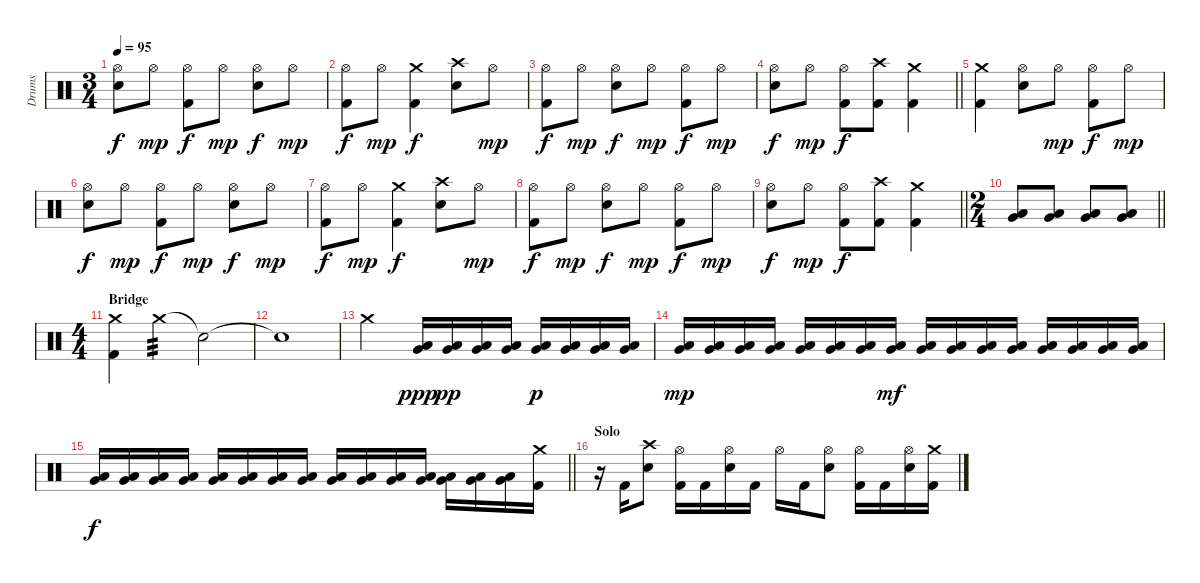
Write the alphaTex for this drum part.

\track ("Drums" "Drums") {instrument percussion}
\staff {score}
\articulation defaults
\ts (3 4)
\tempo 95
\clef neutral
\ks c
("Hi-Hat (open)" "Snare (hit) 2").8{dy f} "Hi-Hat (open)".8{dy mp} ("Hi-Hat (open)" "Kick (hit) 2").8{dy f} "Hi-Hat (open)".8{dy mp} ("Hi-Hat (open)" "Snare (hit) 2").8{dy f} "Hi-Hat (open)".8{dy mp} |
("Hi-Hat (open)" "Kick (hit) 2").8{dy f} "Hi-Hat (open)".8{dy mp} ("Crash medium (hit)" "Kick (hit) 2").4{dy f} ("Crash high (hit)" "Snare (hit) 2").8 "Hi-Hat (open)".8{dy mp} |
("Hi-Hat (open)" "Kick (hit) 2").8{dy f} "Hi-Hat (open)".8{dy mp} ("Hi-Hat (open)" "Snare (hit) 2").8{dy f} "Hi-Hat (open)".8{dy mp} ("Hi-Hat (open)" "Kick (hit) 2").8{dy f} "Hi-Hat (open)".8{dy mp} |
\barLineRight lightlight
("Hi-Hat (open)" "Snare (hit) 2").8{dy f} "Hi-Hat (open)".8{dy mp} ("Hi-Hat (open)" "Kick (hit) 2").8{dy f} ("Crash high (hit)" "Kick (hit) 2").8 ("Crash medium (hit)" "Kick (hit) 2").4 |
("Crash medium (hit)" "Kick (hit) 2").4 ("Hi-Hat (open)" "Snare (hit) 2").8 "Hi-Hat (open)".8{dy mp} ("Hi-Hat (open)" "Kick (hit) 2").8{dy f} "Hi-Hat (open)".8{dy mp} |
("Hi-Hat (open)" "Snare (hit) 2").8{dy f} "Hi-Hat (open)".8{dy mp} ("Hi-Hat (open)" "Kick (hit) 2").8{dy f} "Hi-Hat (open)".8{dy mp} ("Hi-Hat (open)" "Snare (hit) 2").8{dy f} "Hi-Hat (open)".8{dy mp} |
("Hi-Hat (open)" "Kick (hit) 2").8{dy f} "Hi-Hat (open)".8{dy mp} ("Crash medium (hit)" "Kick (hit) 2").4{dy f} ("Crash high (hit)" "Snare (hit) 2").8 "Hi-Hat (open)".8{dy mp} |
("Hi-Hat (open)" "Kick (hit) 2").8{dy f} "Hi-Hat (open)".8{dy mp} ("Hi-Hat (open)" "Snare (hit) 2").8{dy f} "Hi-Hat (open)".8{dy mp} ("Hi-Hat (open)" "Kick (hit) 2").8{dy f} "Hi-Hat (open)".8{dy mp} |
\barLineRight lightlight
("Hi-Hat (open)" "Snare (hit) 2").8{dy f} "Hi-Hat (open)".8{dy mp} ("Hi-Hat (open)" "Kick (hit) 2").8{dy f} ("Crash high (hit)" "Kick (hit) 2").8 ("Crash medium (hit)" "Kick (hit) 2").4 |
\ts (2 4)
\barLineRight lightlight
("Very Low Tom (hit)" "Low Floor Tom (hit)").8 ("Very Low Tom (hit)" "Low Floor Tom (hit)").8 ("Very Low Tom (hit)" "Low Floor Tom (hit)").8 ("Very Low Tom (hit)" "Low Floor Tom (hit)").8 |
\ts (4 4)
\section ("" "Bridge")
("Crash medium (hit)" "Kick (hit) 2").4 "Crash medium (hit)".4{tp 3 volume 8} "Snare (hit)"{t}.2{volume 13} |
"Snare (hit)"{t}.1 |
"Crash medium (hit)".2 ("Low Tom (hit)" "Very Low Tom (hit)").16{dy ppp} ("Low Tom (hit)" "Very Low Tom (hit)").16{dy pp} ("Low Tom (hit)" "Very Low Tom (hit)").16 ("Low Tom (hit)" "Very Low Tom (hit)").16 ("Low Tom (hit)" "Very Low Tom (hit)").16{dy p} ("Low Tom (hit)" "Very Low Tom (hit)").16 ("Low Tom (hit)" "Very Low Tom (hit)").16 ("Low Tom (hit)" "Very Low Tom (hit)").16 |
("Low Tom (hit)" "Very Low Tom (hit)").16{dy mp} ("Low Tom (hit)" "Very Low Tom (hit)").16 ("Low Tom (hit)" "Very Low Tom (hit)").16 ("Low Tom (hit)" "Very Low Tom (hit)").16 ("Low Tom (hit)" "Very Low Tom (hit)").16 ("Low Tom (hit)" "Very Low Tom (hit)").16 ("Low Tom (hit)" "Very Low Tom (hit)").16 ("Low Tom (hit)" "Very Low Tom (hit)").16{dy mf} ("Low Tom (hit)" "Very Low Tom (hit)").16 ("Low Tom (hit)" "Very Low Tom (hit)").16 ("Low Tom (hit)" "Very Low Tom (hit)").16 ("Low Tom (hit)" "Very Low Tom (hit)").16 ("Low Tom (hit)" "Very Low Tom (hit)").16 ("Low Tom (hit)" "Very Low Tom (hit)").16 ("Low Tom (hit)" "Very Low Tom (hit)").16 ("Low Tom (hit)" "Very Low Tom (hit)").16 |
\barLineRight lightlight
("Low Tom (hit)" "Very Low Tom (hit)").16{dy f} ("Low Tom (hit)" "Very Low Tom (hit)").16 ("Low Tom (hit)" "Very Low Tom (hit)").16 ("Low Tom (hit)" "Very Low Tom (hit)").16 ("Low Tom (hit)" "Very Low Tom (hit)").16 ("Low Tom (hit)" "Very Low Tom (hit)").16 ("Low Tom (hit)" "Very Low Tom (hit)").16 ("Low Tom (hit)" "Very Low Tom (hit)").16 ("Low Tom (hit)" "Very Low Tom (hit)").16 ("Low Tom (hit)" "Very Low Tom (hit)").16 ("Low Tom (hit)" "Very Low Tom (hit)").16 ("Low Tom (hit)" "Very Low Tom (hit)").16 ("Very Low Tom (hit)" "Low Floor Tom (hit)").16 ("Low Floor Tom (hit)" "Very Low Tom (hit)").16 ("Low Floor Tom (hit)" "Very Low Tom (hit)").16 ("Crash medium (hit)" "Kick (hit) 2").16 |
\section ("" "Solo")
r.16 "Kick (hit) 2".16 ("Crash high (hit)" "Snare (hit) 2").8 ("Hi-Hat (open)" "Kick (hit) 2").16 "Kick (hit) 2".16 ("Hi-Hat (open)" "Snare (hit) 2").16 "Kick (hit) 2".16 "Hi-Hat (open)".16 "Kick (hit) 2".16 ("Hi-Hat (open)" "Snare (hit) 2").8 ("Hi-Hat (open)" "Kick (hit) 2").16 "Kick (hit) 2".16 ("Hi-Hat (open)" "Snare (hit) 2").16 ("Crash medium (hit)" "Kick (hit) 2").16
